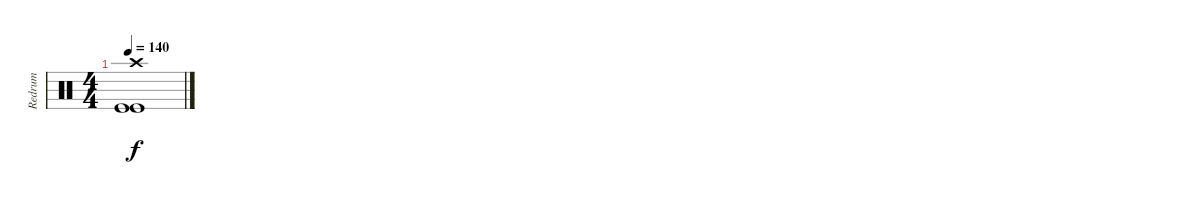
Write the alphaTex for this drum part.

\track ("Redrum" "Redrum") {instrument percussion}
\staff {score}
\articulation defaults
\ts (4 4)
\tempo 140
\clef neutral
\ks c
("Crash high (hit)" "Kick (hit)" "Kick (hit)").1{dy f}
